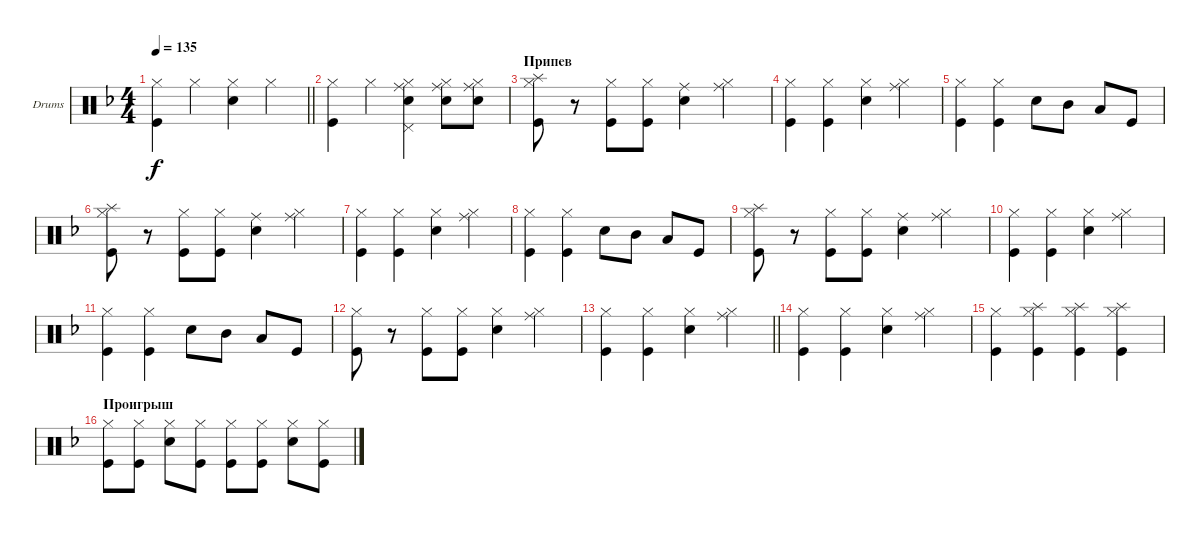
\bracketExtendMode groupsimilarinstruments
\firstSystemTrackNameOrientation horizontal
\otherSystemsTrackNameOrientation horizontal
\track ("Drumkitover" "Drums") {instrument percussion}
\staff {score}
\articulation defaults
\ts (4 4)
\tempo 135
\clef neutral
\scale
0.333333
\barLineRight lightlight
\ks dminor
("Kick (hit)" "Hi-Hat (closed)").4{dy f} "Hi-Hat (closed)".4 ("Snare (hit) 2" "Hi-Hat (closed)").4 "Hi-Hat (closed)".4 |
\scale
0.333333 ("Kick (hit)" "Hi-Hat (closed)").4 "Hi-Hat (closed)".4 ("Ride (middle)" "Snare (hit) 2" "Hi-Hat (closed)" "Pedal Hi-Hat (hit)").4 ("Hi-Hat (closed)" "Snare (hit) 2" "Ride (middle)").8 ("Hi-Hat (closed)" "Snare (hit) 2" "Ride (middle)").8 |
\section ("" "Припев")
\scale
0.333333 ("Hi-Hat (closed)" "Kick (hit)" "Splash (hit)").8 r.8 ("Hi-Hat (closed)" "Kick (hit)").8 ("Hi-Hat (closed)" "Kick (hit)").8 ("Snare (hit) 2" "Ride (middle)").4 ("Hi-Hat (closed)" "Ride (middle)").4 |
\scale
0.333333 ("Hi-Hat (closed)" "Kick (hit)").4 ("Hi-Hat (closed)" "Kick (hit)").4 ("Snare (hit) 2" "Hi-Hat (closed)").4 ("Hi-Hat (closed)" "Ride (middle)").4 |
\scale
0.333333 ("Hi-Hat (closed)" "Kick (hit)").4 ("Hi-Hat (closed)" "Kick (hit)").4 "Snare (hit) 2".8 "Mid Tom (hit)".8 "Low Tom (hit)".8 "Kick (hit)".8 |
\scale
0.333333 ("Hi-Hat (closed)" "Kick (hit)" "Splash (hit)").8 r.8 ("Hi-Hat (closed)" "Kick (hit)").8 ("Hi-Hat (closed)" "Kick (hit)").8 ("Snare (hit) 2" "Ride (middle)").4 ("Hi-Hat (closed)" "Ride (middle)").4 |
\scale
0.333333 ("Hi-Hat (closed)" "Kick (hit)").4 ("Hi-Hat (closed)" "Kick (hit)").4 ("Snare (hit) 2" "Hi-Hat (closed)").4 ("Hi-Hat (closed)" "Ride (middle)").4 |
\scale
0.333333 ("Hi-Hat (closed)" "Kick (hit)").4 ("Hi-Hat (closed)" "Kick (hit)").4 "Snare (hit) 2".8 "Mid Tom (hit)".8 "Low Tom (hit)".8 "Kick (hit)".8 |
\scale
0.333333 ("Hi-Hat (closed)" "Kick (hit)" "Splash (hit)").8 r.8 ("Hi-Hat (closed)" "Kick (hit)").8 ("Hi-Hat (closed)" "Kick (hit)").8 ("Snare (hit) 2" "Ride (middle)").4 ("Hi-Hat (closed)" "Ride (middle)").4 |
\scale
0.333333 ("Hi-Hat (closed)" "Kick (hit)").4 ("Hi-Hat (closed)" "Kick (hit)").4 ("Snare (hit) 2" "Hi-Hat (closed)").4 ("Hi-Hat (closed)" "Ride (middle)").4 |
\scale
0.333333 ("Hi-Hat (closed)" "Kick (hit)").4 ("Hi-Hat (closed)" "Kick (hit)").4 "Snare (hit) 2".8 "Mid Tom (hit)".8 "Low Tom (hit)".8 "Kick (hit)".8 |
\scale
0.333333 ("Kick (hit)" "Hi-Hat (closed)").8 r.8 ("Hi-Hat (closed)" "Kick (hit)").8 ("Hi-Hat (closed)" "Kick (hit)").8 ("Snare (hit) 2" "Hi-Hat (closed)").4 ("Hi-Hat (closed)" "Ride (middle)").4 |
\scale
0.333333
\barLineRight lightlight
("Hi-Hat (closed)" "Kick (hit)").4 ("Hi-Hat (closed)" "Kick (hit)").4 ("Snare (hit) 2" "Hi-Hat (closed)").4 ("Hi-Hat (closed)" "Ride (middle)").4 |
\scale
0.333333 ("Hi-Hat (closed)" "Kick (hit)").4 ("Hi-Hat (closed)" "Kick (hit)").4 ("Snare (hit) 2" "Hi-Hat (closed)").4 ("Hi-Hat (closed)" "Ride (middle)").4 |
\scale
0.333333 ("Hi-Hat (closed)" "Kick (hit)").4 ("Hi-Hat (closed)" "Kick (hit)" "Splash (hit)").4 ("Hi-Hat (closed)" "Kick (hit)" "Splash (hit)").4 ("Hi-Hat (closed)" "Kick (hit)" "Splash (hit)").4 |
\section ("" "Проигрыш")
\scale
0.333333 ("Kick (hit)" "Hi-Hat (closed)").8 ("Kick (hit)" "Hi-Hat (closed)").8 ("Snare (hit) 2" "Hi-Hat (closed)").8 ("Kick (hit)" "Hi-Hat (closed)").8 ("Kick (hit)" "Hi-Hat (closed)").8 ("Kick (hit)" "Hi-Hat (closed)").8 ("Snare (hit) 2" "Hi-Hat (closed)").8 ("Kick (hit)" "Hi-Hat (closed)").8
